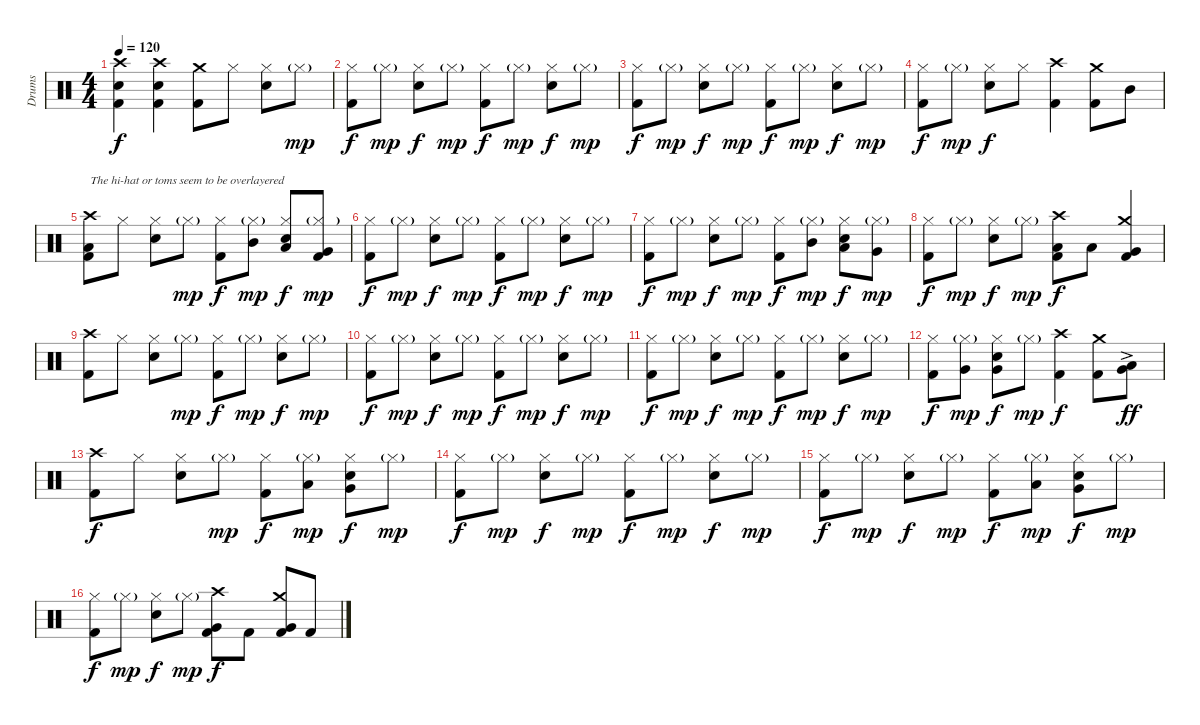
\track ("Drums" "Drums") {instrument percussion}
\staff {score}
\articulation defaults
\ts (4 4)
\tempo 120
\clef neutral
\ks c
("Crash high (hit)" "Electric Snare (hit)" "Kick (hit) 2").4{dy f} ("Crash high (hit)" "Electric Snare (hit)" "Kick (hit) 2").4 ("Crash medium (hit)" "Kick (hit) 2").8 "Hi-Hat (closed)".8 ("Hi-Hat (closed)" "Electric Snare (hit)").8 "Hi-Hat (closed)"{g}.8{dy mp} |
("Hi-Hat (closed)" "Kick (hit) 2").8{dy f} "Hi-Hat (closed)"{g}.8{dy mp} ("Hi-Hat (closed)" "Electric Snare (hit)").8{dy f} "Hi-Hat (closed)"{g}.8{dy mp} ("Hi-Hat (closed)" "Kick (hit) 2").8{dy f} "Hi-Hat (closed)"{g}.8{dy mp} ("Hi-Hat (closed)" "Electric Snare (hit)").8{dy f} "Hi-Hat (closed)"{g}.8{dy mp} |
("Hi-Hat (closed)" "Kick (hit) 2").8{dy f} "Hi-Hat (closed)"{g}.8{dy mp} ("Hi-Hat (closed)" "Electric Snare (hit)").8{dy f} "Hi-Hat (closed)"{g}.8{dy mp} ("Hi-Hat (closed)" "Kick (hit) 2").8{dy f} "Hi-Hat (closed)"{g}.8{dy mp} ("Hi-Hat (closed)" "Electric Snare (hit)").8{dy f} "Hi-Hat (closed)"{g}.8{dy mp} |
("Hi-Hat (closed)" "Kick (hit) 2").8{dy f} "Hi-Hat (closed)"{g}.8{dy mp} ("Hi-Hat (closed)" "Electric Snare (hit)").8{dy f} "Hi-Hat (closed)".8 ("Crash high (hit)" "Kick (hit) 2").4 ("Crash medium (hit)" "Kick (hit) 2").8 "Mid Tom (hit)".8 |
("Crash high (hit)" "Low Tom (hit)" "Kick (hit) 2").8{txt "The hi-hat or toms seem to be overlayered"} "Hi-Hat (closed)".8 ("Hi-Hat (closed)" "Electric Snare (hit)").8 "Hi-Hat (closed)"{g}.8{dy mp} ("Hi-Hat (closed)" "Kick (hit) 2").8{dy f} ("Mid Tom (hit)" "Hi-Hat (closed)"{g}).8{dy mp} ("Low Tom (hit)" "Hi-Hat (closed)" "Electric Snare (hit)").8{dy f} ("Very Low Tom (hit)" "Hi-Hat (closed)"{g} "Kick (hit) 2").8{dy mp} |
("Hi-Hat (closed)" "Kick (hit) 2").8{dy f} "Hi-Hat (closed)"{g}.8{dy mp} ("Hi-Hat (closed)" "Electric Snare (hit)").8{dy f} "Hi-Hat (closed)"{g}.8{dy mp} ("Hi-Hat (closed)" "Kick (hit) 2").8{dy f} "Hi-Hat (closed)"{g}.8{dy mp} ("Hi-Hat (closed)" "Electric Snare (hit)").8{dy f} "Hi-Hat (closed)"{g}.8{dy mp} |
("Hi-Hat (closed)" "Kick (hit) 2").8{dy f} "Hi-Hat (closed)"{g}.8{dy mp} ("Hi-Hat (closed)" "Electric Snare (hit)").8{dy f} "Hi-Hat (closed)"{g}.8{dy mp} ("Hi-Hat (closed)" "Kick (hit) 2").8{dy f} ("Mid Tom (hit)" "Hi-Hat (closed)"{g}).8{dy mp} ("Low Tom (hit)" "Hi-Hat (closed)" "Electric Snare (hit)").8{dy f} ("Very Low Tom (hit)" "Hi-Hat (closed)"{g}).8{dy mp} |
("Hi-Hat (closed)" "Kick (hit) 2").8{dy f} "Hi-Hat (closed)"{g}.8{dy mp} ("Hi-Hat (closed)" "Electric Snare (hit)").8{dy f} "Hi-Hat (closed)"{g}.8{dy mp} ("Crash high (hit)" "Low Tom (hit)" "Kick (hit) 2").8{dy f} "Low Tom (hit)".8 ("Crash medium (hit)" "Very Low Tom (hit)" "Kick (hit) 2").4 |
("Crash high (hit)" "Kick (hit) 2").8 "Hi-Hat (closed)".8 ("Hi-Hat (closed)" "Electric Snare (hit)").8 "Hi-Hat (closed)"{g}.8{dy mp} ("Hi-Hat (closed)" "Kick (hit) 2").8{dy f} "Hi-Hat (closed)"{g}.8{dy mp} ("Hi-Hat (closed)" "Electric Snare (hit)").8{dy f} "Hi-Hat (closed)"{g}.8{dy mp} |
("Hi-Hat (closed)" "Kick (hit) 2").8{dy f} "Hi-Hat (closed)"{g}.8{dy mp} ("Hi-Hat (closed)" "Electric Snare (hit)").8{dy f} "Hi-Hat (closed)"{g}.8{dy mp} ("Hi-Hat (closed)" "Kick (hit) 2").8{dy f} "Hi-Hat (closed)"{g}.8{dy mp} ("Hi-Hat (closed)" "Electric Snare (hit)").8{dy f} "Hi-Hat (closed)"{g}.8{dy mp} |
("Hi-Hat (closed)" "Kick (hit) 2").8{dy f} "Hi-Hat (closed)"{g}.8{dy mp} ("Hi-Hat (closed)" "Electric Snare (hit)").8{dy f} "Hi-Hat (closed)"{g}.8{dy mp} ("Hi-Hat (closed)" "Kick (hit) 2").8{dy f} "Hi-Hat (closed)"{g}.8{dy mp} ("Hi-Hat (closed)" "Electric Snare (hit)").8{dy f} "Hi-Hat (closed)"{g}.8{dy mp} |
("Hi-Hat (closed)" "Kick (hit) 2").8{dy f} ("Very Low Tom (hit)" "Hi-Hat (closed)"{g}).8{dy mp} ("Very Low Tom (hit)" "Hi-Hat (closed)" "Electric Snare (hit)").8{dy f} "Hi-Hat (closed)"{g}.8{dy mp} ("Crash high (hit)" "Kick (hit) 2").4{dy f} ("Crash medium (hit)" "Kick (hit) 2").8 ("Low Tom (hit)" "Very Low Tom (hit)"{ac}).8{dy ff} |
("Crash high (hit)" "Kick (hit) 2").8{dy f} "Hi-Hat (closed)".8 ("Hi-Hat (closed)" "Electric Snare (hit)").8 "Hi-Hat (closed)"{g}.8{dy mp} ("Hi-Hat (closed)" "Kick (hit) 2").8{dy f} ("Low Tom (hit)" "Hi-Hat (closed)"{g}).8{dy mp} ("Very Low Tom (hit)" "Hi-Hat (closed)" "Electric Snare (hit)").8{dy f} "Hi-Hat (closed)"{g}.8{dy mp} |
("Hi-Hat (closed)" "Kick (hit) 2").8{dy f} "Hi-Hat (closed)"{g}.8{dy mp} ("Hi-Hat (closed)" "Electric Snare (hit)").8{dy f} "Hi-Hat (closed)"{g}.8{dy mp} ("Hi-Hat (closed)" "Kick (hit) 2").8{dy f} "Hi-Hat (closed)"{g}.8{dy mp} ("Hi-Hat (closed)" "Electric Snare (hit)").8{dy f} "Hi-Hat (closed)"{g}.8{dy mp} |
("Hi-Hat (closed)" "Kick (hit) 2").8{dy f} "Hi-Hat (closed)"{g}.8{dy mp} ("Hi-Hat (closed)" "Electric Snare (hit)").8{dy f} "Hi-Hat (closed)"{g}.8{dy mp} ("Hi-Hat (closed)" "Kick (hit) 2").8{dy f} ("Low Tom (hit)" "Hi-Hat (closed)"{g}).8{dy mp} ("Very Low Tom (hit)" "Hi-Hat (closed)" "Electric Snare (hit)").8{dy f} "Hi-Hat (closed)"{g}.8{dy mp} |
("Hi-Hat (closed)" "Kick (hit) 2").8{dy f} "Hi-Hat (closed)"{g}.8{dy mp} ("Hi-Hat (closed)" "Electric Snare (hit)").8{dy f} "Hi-Hat (closed)"{g}.8{dy mp} ("Crash high (hit)" "Very Low Tom (hit)" "Kick (hit) 2").8{dy f} "Kick (hit) 2".8 ("Crash medium (hit)" "Very Low Tom (hit)" "Kick (hit) 2").8 "Kick (hit) 2".8
